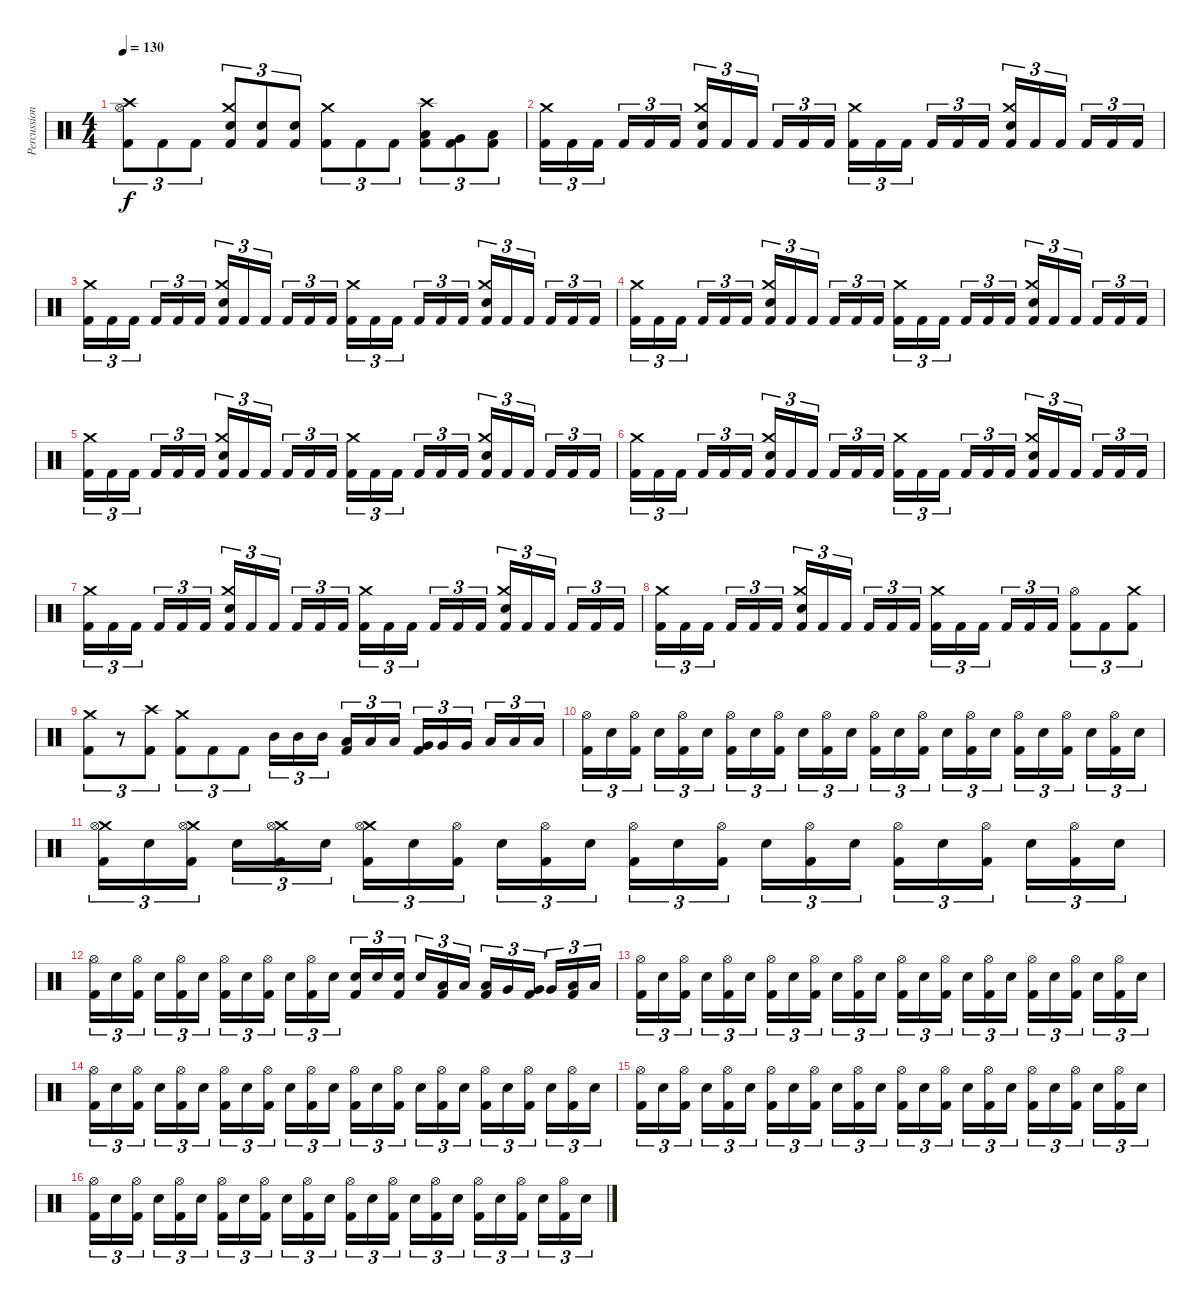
\track ("Percussion" "Percussion") {instrument percussion}
\staff {score}
\articulation defaults
\ts (4 4)
\tempo 130
\clef neutral
\ks c
("Crash high (hit)" "Hi-Hat (open)" "Kick (hit) 2").8{tu (3 2) dy f} "Kick (hit) 2".8{tu (3 2)} "Kick (hit) 2".8{tu (3 2)} ("Crash medium (hit)" "Snare (hit) 2" "Kick (hit) 2").8{tu (3 2)} ("Snare (hit) 2" "Kick (hit) 2").8{tu (3 2)} ("Snare (hit) 2" "Kick (hit) 2").8{tu (3 2)} ("Crash medium (hit)" "Kick (hit) 2").8{tu (3 2)} "Kick (hit) 2".8{tu (3 2)} "Kick (hit) 2".8{tu (3 2)} ("Crash high (hit)" "Low Tom (hit)" "Kick (hit) 2").8{tu (3 2)} ("Very Low Tom (hit)" "Kick (hit) 2").8{tu (3 2)} ("Low Floor Tom (hit)" "Kick (hit) 2").8{tu (3 2)} |
("Crash medium (hit)" "Kick (hit) 2").16{tu (3 2)} "Kick (hit) 2".16{tu (3 2)} "Kick (hit) 2".16{tu (3 2)} "Kick (hit) 2".16{tu (3 2)} "Kick (hit) 2".16{tu (3 2)} "Kick (hit) 2".16{tu (3 2)} ("Crash medium (hit)" "Snare (hit) 2" "Kick (hit) 2").16{tu (3 2)} "Kick (hit) 2".16{tu (3 2)} "Kick (hit) 2".16{tu (3 2)} "Kick (hit) 2".16{tu (3 2)} "Kick (hit) 2".16{tu (3 2)} "Kick (hit) 2".16{tu (3 2)} ("Crash medium (hit)" "Kick (hit) 2").16{tu (3 2)} "Kick (hit) 2".16{tu (3 2)} "Kick (hit) 2".16{tu (3 2)} "Kick (hit) 2".16{tu (3 2)} "Kick (hit) 2".16{tu (3 2)} "Kick (hit) 2".16{tu (3 2)} ("Crash medium (hit)" "Snare (hit) 2" "Kick (hit) 2").16{tu (3 2)} "Kick (hit) 2".16{tu (3 2)} "Kick (hit) 2".16{tu (3 2)} "Kick (hit) 2".16{tu (3 2)} "Kick (hit) 2".16{tu (3 2)} "Kick (hit) 2".16{tu (3 2)} |
("Crash medium (hit)" "Kick (hit) 2").16{tu (3 2)} "Kick (hit) 2".16{tu (3 2)} "Kick (hit) 2".16{tu (3 2)} "Kick (hit) 2".16{tu (3 2)} "Kick (hit) 2".16{tu (3 2)} "Kick (hit) 2".16{tu (3 2)} ("Crash medium (hit)" "Snare (hit) 2" "Kick (hit) 2").16{tu (3 2)} "Kick (hit) 2".16{tu (3 2)} "Kick (hit) 2".16{tu (3 2)} "Kick (hit) 2".16{tu (3 2)} "Kick (hit) 2".16{tu (3 2)} "Kick (hit) 2".16{tu (3 2)} ("Crash medium (hit)" "Kick (hit) 2").16{tu (3 2)} "Kick (hit) 2".16{tu (3 2)} "Kick (hit) 2".16{tu (3 2)} "Kick (hit) 2".16{tu (3 2)} "Kick (hit) 2".16{tu (3 2)} "Kick (hit) 2".16{tu (3 2)} ("Crash medium (hit)" "Snare (hit) 2" "Kick (hit) 2").16{tu (3 2)} "Kick (hit) 2".16{tu (3 2)} "Kick (hit) 2".16{tu (3 2)} "Kick (hit) 2".16{tu (3 2)} "Kick (hit) 2".16{tu (3 2)} "Kick (hit) 2".16{tu (3 2)} |
("Crash medium (hit)" "Kick (hit) 2").16{tu (3 2)} "Kick (hit) 2".16{tu (3 2)} "Kick (hit) 2".16{tu (3 2)} "Kick (hit) 2".16{tu (3 2)} "Kick (hit) 2".16{tu (3 2)} "Kick (hit) 2".16{tu (3 2)} ("Crash medium (hit)" "Snare (hit) 2" "Kick (hit) 2").16{tu (3 2)} "Kick (hit) 2".16{tu (3 2)} "Kick (hit) 2".16{tu (3 2)} "Kick (hit) 2".16{tu (3 2)} "Kick (hit) 2".16{tu (3 2)} "Kick (hit) 2".16{tu (3 2)} ("Crash medium (hit)" "Kick (hit) 2").16{tu (3 2)} "Kick (hit) 2".16{tu (3 2)} "Kick (hit) 2".16{tu (3 2)} "Kick (hit) 2".16{tu (3 2)} "Kick (hit) 2".16{tu (3 2)} "Kick (hit) 2".16{tu (3 2)} ("Crash medium (hit)" "Snare (hit) 2" "Kick (hit) 2").16{tu (3 2)} "Kick (hit) 2".16{tu (3 2)} "Kick (hit) 2".16{tu (3 2)} "Kick (hit) 2".16{tu (3 2)} "Kick (hit) 2".16{tu (3 2)} "Kick (hit) 2".16{tu (3 2)} |
("Crash medium (hit)" "Kick (hit) 2").16{tu (3 2)} "Kick (hit) 2".16{tu (3 2)} "Kick (hit) 2".16{tu (3 2)} "Kick (hit) 2".16{tu (3 2)} "Kick (hit) 2".16{tu (3 2)} "Kick (hit) 2".16{tu (3 2)} ("Crash medium (hit)" "Snare (hit) 2" "Kick (hit) 2").16{tu (3 2)} "Kick (hit) 2".16{tu (3 2)} "Kick (hit) 2".16{tu (3 2)} "Kick (hit) 2".16{tu (3 2)} "Kick (hit) 2".16{tu (3 2)} "Kick (hit) 2".16{tu (3 2)} ("Crash medium (hit)" "Kick (hit) 2").16{tu (3 2)} "Kick (hit) 2".16{tu (3 2)} "Kick (hit) 2".16{tu (3 2)} "Kick (hit) 2".16{tu (3 2)} "Kick (hit) 2".16{tu (3 2)} "Kick (hit) 2".16{tu (3 2)} ("Crash medium (hit)" "Snare (hit) 2" "Kick (hit) 2").16{tu (3 2)} "Kick (hit) 2".16{tu (3 2)} "Kick (hit) 2".16{tu (3 2)} "Kick (hit) 2".16{tu (3 2)} "Kick (hit) 2".16{tu (3 2)} "Kick (hit) 2".16{tu (3 2)} |
("Crash medium (hit)" "Kick (hit) 2").16{tu (3 2)} "Kick (hit) 2".16{tu (3 2)} "Kick (hit) 2".16{tu (3 2)} "Kick (hit) 2".16{tu (3 2)} "Kick (hit) 2".16{tu (3 2)} "Kick (hit) 2".16{tu (3 2)} ("Crash medium (hit)" "Snare (hit) 2" "Kick (hit) 2").16{tu (3 2)} "Kick (hit) 2".16{tu (3 2)} "Kick (hit) 2".16{tu (3 2)} "Kick (hit) 2".16{tu (3 2)} "Kick (hit) 2".16{tu (3 2)} "Kick (hit) 2".16{tu (3 2)} ("Crash medium (hit)" "Kick (hit) 2").16{tu (3 2)} "Kick (hit) 2".16{tu (3 2)} "Kick (hit) 2".16{tu (3 2)} "Kick (hit) 2".16{tu (3 2)} "Kick (hit) 2".16{tu (3 2)} "Kick (hit) 2".16{tu (3 2)} ("Crash medium (hit)" "Snare (hit) 2" "Kick (hit) 2").16{tu (3 2)} "Kick (hit) 2".16{tu (3 2)} "Kick (hit) 2".16{tu (3 2)} "Kick (hit) 2".16{tu (3 2)} "Kick (hit) 2".16{tu (3 2)} "Kick (hit) 2".16{tu (3 2)} |
("Crash medium (hit)" "Kick (hit) 2").16{tu (3 2)} "Kick (hit) 2".16{tu (3 2)} "Kick (hit) 2".16{tu (3 2)} "Kick (hit) 2".16{tu (3 2)} "Kick (hit) 2".16{tu (3 2)} "Kick (hit) 2".16{tu (3 2)} ("Crash medium (hit)" "Snare (hit) 2" "Kick (hit) 2").16{tu (3 2)} "Kick (hit) 2".16{tu (3 2)} "Kick (hit) 2".16{tu (3 2)} "Kick (hit) 2".16{tu (3 2)} "Kick (hit) 2".16{tu (3 2)} "Kick (hit) 2".16{tu (3 2)} ("Crash medium (hit)" "Kick (hit) 2").16{tu (3 2)} "Kick (hit) 2".16{tu (3 2)} "Kick (hit) 2".16{tu (3 2)} "Kick (hit) 2".16{tu (3 2)} "Kick (hit) 2".16{tu (3 2)} "Kick (hit) 2".16{tu (3 2)} ("Crash medium (hit)" "Snare (hit) 2" "Kick (hit) 2").16{tu (3 2)} "Kick (hit) 2".16{tu (3 2)} "Kick (hit) 2".16{tu (3 2)} "Kick (hit) 2".16{tu (3 2)} "Kick (hit) 2".16{tu (3 2)} "Kick (hit) 2".16{tu (3 2)} |
("Crash medium (hit)" "Kick (hit) 2").16{tu (3 2)} "Kick (hit) 2".16{tu (3 2)} "Kick (hit) 2".16{tu (3 2)} "Kick (hit) 2".16{tu (3 2)} "Kick (hit) 2".16{tu (3 2)} "Kick (hit) 2".16{tu (3 2)} ("Crash medium (hit)" "Snare (hit) 2" "Kick (hit) 2").16{tu (3 2)} "Kick (hit) 2".16{tu (3 2)} "Kick (hit) 2".16{tu (3 2)} "Kick (hit) 2".16{tu (3 2)} "Kick (hit) 2".16{tu (3 2)} "Kick (hit) 2".16{tu (3 2)} ("Crash medium (hit)" "Kick (hit) 2").16{tu (3 2)} "Kick (hit) 2".16{tu (3 2)} "Kick (hit) 2".16{tu (3 2)} "Kick (hit) 2".16{tu (3 2)} "Kick (hit) 2".16{tu (3 2)} "Kick (hit) 2".16{tu (3 2)} ("Hi-Hat (open)" "Kick (hit) 2").8{tu (3 2)} "Kick (hit) 2".8{tu (3 2)} ("Crash medium (hit)" "Kick (hit) 2").8{tu (3 2)} |
("Crash medium (hit)" "Kick (hit) 2").8{tu (3 2)} r.8{tu (3 2)} ("Crash high (hit)" "Kick (hit) 2").8{tu (3 2)} ("Crash medium (hit)" "Kick (hit) 2").8{tu (3 2)} "Kick (hit) 2".8{tu (3 2)} "Kick (hit) 2".8{tu (3 2)} "Mid Tom (hit)".16{tu (3 2)} "Mid Tom (hit)".16{tu (3 2)} "Mid Tom (hit)".16{tu (3 2)} ("Low Tom (hit)" "Kick (hit) 2").16{tu (3 2)} "Low Tom (hit)".16{tu (3 2)} "Low Tom (hit)".16{tu (3 2)} ("Very Low Tom (hit)" "Kick (hit) 2").16{tu (3 2)} "Very Low Tom (hit)".16{tu (3 2)} "Very Low Tom (hit)".16{tu (3 2)} "Low Floor Tom (hit)".16{tu (3 2)} "Low Floor Tom (hit)".16{tu (3 2)} "Low Floor Tom (hit)".16{tu (3 2)} |
("Hi-Hat (open)" "Kick (hit) 2").16{tu (3 2)} "Snare (hit) 2".16{tu (3 2)} ("Hi-Hat (open)" "Kick (hit) 2").16{tu (3 2)} "Snare (hit) 2".16{tu (3 2)} ("Hi-Hat (open)" "Kick (hit) 2").16{tu (3 2)} "Snare (hit) 2".16{tu (3 2)} ("Hi-Hat (open)" "Kick (hit) 2").16{tu (3 2)} "Snare (hit) 2".16{tu (3 2)} ("Hi-Hat (open)" "Kick (hit) 2").16{tu (3 2)} "Snare (hit) 2".16{tu (3 2)} ("Hi-Hat (open)" "Kick (hit) 2").16{tu (3 2)} "Snare (hit) 2".16{tu (3 2)} ("Hi-Hat (open)" "Kick (hit) 2").16{tu (3 2)} "Snare (hit) 2".16{tu (3 2)} ("Hi-Hat (open)" "Kick (hit) 2").16{tu (3 2)} "Snare (hit) 2".16{tu (3 2)} ("Hi-Hat (open)" "Kick (hit) 2").16{tu (3 2)} "Snare (hit) 2".16{tu (3 2)} ("Hi-Hat (open)" "Kick (hit) 2").16{tu (3 2)} "Snare (hit) 2".16{tu (3 2)} ("Hi-Hat (open)" "Kick (hit) 2").16{tu (3 2)} "Snare (hit) 2".16{tu (3 2)} ("Hi-Hat (open)" "Kick (hit) 2").16{tu (3 2)} "Snare (hit) 2".16{tu (3 2)} |
("Crash medium (hit)" "Hi-Hat (open)" "Kick (hit) 2").16{tu (3 2)} "Snare (hit) 2".16{tu (3 2)} ("Crash medium (hit)" "Hi-Hat (open)" "Kick (hit) 2").16{tu (3 2)} "Snare (hit) 2".16{tu (3 2)} ("Crash medium (hit)" "Hi-Hat (open)" "Kick (hit) 2").16{tu (3 2)} "Snare (hit) 2".16{tu (3 2)} ("Crash medium (hit)" "Hi-Hat (open)" "Kick (hit) 2").16{tu (3 2)} "Snare (hit) 2".16{tu (3 2)} ("Hi-Hat (open)" "Kick (hit) 2").16{tu (3 2)} "Snare (hit) 2".16{tu (3 2)} ("Hi-Hat (open)" "Kick (hit) 2").16{tu (3 2)} "Snare (hit) 2".16{tu (3 2)} ("Hi-Hat (open)" "Kick (hit) 2").16{tu (3 2)} "Snare (hit) 2".16{tu (3 2)} ("Hi-Hat (open)" "Kick (hit) 2").16{tu (3 2)} "Snare (hit) 2".16{tu (3 2)} ("Hi-Hat (open)" "Kick (hit) 2").16{tu (3 2)} "Snare (hit) 2".16{tu (3 2)} ("Hi-Hat (open)" "Kick (hit) 2").16{tu (3 2)} "Snare (hit) 2".16{tu (3 2)} ("Hi-Hat (open)" "Kick (hit) 2").16{tu (3 2)} "Snare (hit) 2".16{tu (3 2)} ("Hi-Hat (open)" "Kick (hit) 2").16{tu (3 2)} "Snare (hit) 2".16{tu (3 2)} |
("Hi-Hat (open)" "Kick (hit) 2").16{tu (3 2)} "Snare (hit) 2".16{tu (3 2)} ("Hi-Hat (open)" "Kick (hit) 2").16{tu (3 2)} "Snare (hit) 2".16{tu (3 2)} ("Hi-Hat (open)" "Kick (hit) 2").16{tu (3 2)} "Snare (hit) 2".16{tu (3 2)} ("Hi-Hat (open)" "Kick (hit) 2").16{tu (3 2)} "Snare (hit) 2".16{tu (3 2)} ("Hi-Hat (open)" "Kick (hit) 2").16{tu (3 2)} "Snare (hit) 2".16{tu (3 2)} ("Hi-Hat (open)" "Kick (hit) 2").16{tu (3 2)} "Snare (hit) 2".16{tu (3 2)} ("Snare (hit) 2" "Kick (hit) 2").16{tu (3 2)} "Snare (hit) 2".16{tu (3 2)} ("Snare (hit) 2" "Kick (hit) 2").16{tu (3 2)} "Snare (hit) 2".16{tu (3 2)} ("Low Tom (hit)" "Kick (hit) 2").16{tu (3 2)} "Low Tom (hit)".16{tu (3 2)} ("Low Tom (hit)" "Kick (hit) 2").16{tu (3 2)} "Very Low Tom (hit)".16{tu (3 2)} ("Very Low Tom (hit)" "Kick (hit) 2").16{tu (3 2)} "Very Low Tom (hit)".16{tu (3 2)} ("Low Floor Tom (hit)" "Kick (hit) 2").16{tu (3 2)} "Low Floor Tom (hit)".16{tu (3 2)} |
("Hi-Hat (open)" "Kick (hit) 2").16{tu (3 2)} "Snare (hit) 2".16{tu (3 2)} ("Hi-Hat (open)" "Kick (hit) 2").16{tu (3 2)} "Snare (hit) 2".16{tu (3 2)} ("Hi-Hat (open)" "Kick (hit) 2").16{tu (3 2)} "Snare (hit) 2".16{tu (3 2)} ("Hi-Hat (open)" "Kick (hit) 2").16{tu (3 2)} "Snare (hit) 2".16{tu (3 2)} ("Hi-Hat (open)" "Kick (hit) 2").16{tu (3 2)} "Snare (hit) 2".16{tu (3 2)} ("Hi-Hat (open)" "Kick (hit) 2").16{tu (3 2)} "Snare (hit) 2".16{tu (3 2)} ("Hi-Hat (open)" "Kick (hit) 2").16{tu (3 2)} "Snare (hit) 2".16{tu (3 2)} ("Hi-Hat (open)" "Kick (hit) 2").16{tu (3 2)} "Snare (hit) 2".16{tu (3 2)} ("Hi-Hat (open)" "Kick (hit) 2").16{tu (3 2)} "Snare (hit) 2".16{tu (3 2)} ("Hi-Hat (open)" "Kick (hit) 2").16{tu (3 2)} "Snare (hit) 2".16{tu (3 2)} ("Hi-Hat (open)" "Kick (hit) 2").16{tu (3 2)} "Snare (hit) 2".16{tu (3 2)} ("Hi-Hat (open)" "Kick (hit) 2").16{tu (3 2)} "Snare (hit) 2".16{tu (3 2)} |
("Hi-Hat (open)" "Kick (hit) 2").16{tu (3 2)} "Snare (hit) 2".16{tu (3 2)} ("Hi-Hat (open)" "Kick (hit) 2").16{tu (3 2)} "Snare (hit) 2".16{tu (3 2)} ("Hi-Hat (open)" "Kick (hit) 2").16{tu (3 2)} "Snare (hit) 2".16{tu (3 2)} ("Hi-Hat (open)" "Kick (hit) 2").16{tu (3 2)} "Snare (hit) 2".16{tu (3 2)} ("Hi-Hat (open)" "Kick (hit) 2").16{tu (3 2)} "Snare (hit) 2".16{tu (3 2)} ("Hi-Hat (open)" "Kick (hit) 2").16{tu (3 2)} "Snare (hit) 2".16{tu (3 2)} ("Hi-Hat (open)" "Kick (hit) 2").16{tu (3 2)} "Snare (hit) 2".16{tu (3 2)} ("Hi-Hat (open)" "Kick (hit) 2").16{tu (3 2)} "Snare (hit) 2".16{tu (3 2)} ("Hi-Hat (open)" "Kick (hit) 2").16{tu (3 2)} "Snare (hit) 2".16{tu (3 2)} ("Hi-Hat (open)" "Kick (hit) 2").16{tu (3 2)} "Snare (hit) 2".16{tu (3 2)} ("Hi-Hat (open)" "Kick (hit) 2").16{tu (3 2)} "Snare (hit) 2".16{tu (3 2)} ("Hi-Hat (open)" "Kick (hit) 2").16{tu (3 2)} "Snare (hit) 2".16{tu (3 2)} |
("Hi-Hat (open)" "Kick (hit) 2").16{tu (3 2)} "Snare (hit) 2".16{tu (3 2)} ("Hi-Hat (open)" "Kick (hit) 2").16{tu (3 2)} "Snare (hit) 2".16{tu (3 2)} ("Hi-Hat (open)" "Kick (hit) 2").16{tu (3 2)} "Snare (hit) 2".16{tu (3 2)} ("Hi-Hat (open)" "Kick (hit) 2").16{tu (3 2)} "Snare (hit) 2".16{tu (3 2)} ("Hi-Hat (open)" "Kick (hit) 2").16{tu (3 2)} "Snare (hit) 2".16{tu (3 2)} ("Hi-Hat (open)" "Kick (hit) 2").16{tu (3 2)} "Snare (hit) 2".16{tu (3 2)} ("Hi-Hat (open)" "Kick (hit) 2").16{tu (3 2)} "Snare (hit) 2".16{tu (3 2)} ("Hi-Hat (open)" "Kick (hit) 2").16{tu (3 2)} "Snare (hit) 2".16{tu (3 2)} ("Hi-Hat (open)" "Kick (hit) 2").16{tu (3 2)} "Snare (hit) 2".16{tu (3 2)} ("Hi-Hat (open)" "Kick (hit) 2").16{tu (3 2)} "Snare (hit) 2".16{tu (3 2)} ("Hi-Hat (open)" "Kick (hit) 2").16{tu (3 2)} "Snare (hit) 2".16{tu (3 2)} ("Hi-Hat (open)" "Kick (hit) 2").16{tu (3 2)} "Snare (hit) 2".16{tu (3 2)} |
("Hi-Hat (open)" "Kick (hit) 2").16{tu (3 2)} "Snare (hit) 2".16{tu (3 2)} ("Hi-Hat (open)" "Kick (hit) 2").16{tu (3 2)} "Snare (hit) 2".16{tu (3 2)} ("Hi-Hat (open)" "Kick (hit) 2").16{tu (3 2)} "Snare (hit) 2".16{tu (3 2)} ("Hi-Hat (open)" "Kick (hit) 2").16{tu (3 2)} "Snare (hit) 2".16{tu (3 2)} ("Hi-Hat (open)" "Kick (hit) 2").16{tu (3 2)} "Snare (hit) 2".16{tu (3 2)} ("Hi-Hat (open)" "Kick (hit) 2").16{tu (3 2)} "Snare (hit) 2".16{tu (3 2)} ("Hi-Hat (open)" "Kick (hit) 2").16{tu (3 2)} "Snare (hit) 2".16{tu (3 2)} ("Hi-Hat (open)" "Kick (hit) 2").16{tu (3 2)} "Snare (hit) 2".16{tu (3 2)} ("Hi-Hat (open)" "Kick (hit) 2").16{tu (3 2)} "Snare (hit) 2".16{tu (3 2)} ("Hi-Hat (open)" "Kick (hit) 2").16{tu (3 2)} "Snare (hit) 2".16{tu (3 2)} ("Hi-Hat (open)" "Kick (hit) 2").16{tu (3 2)} "Snare (hit) 2".16{tu (3 2)} ("Hi-Hat (open)" "Kick (hit) 2").16{tu (3 2)} "Snare (hit) 2".16{tu (3 2)}
